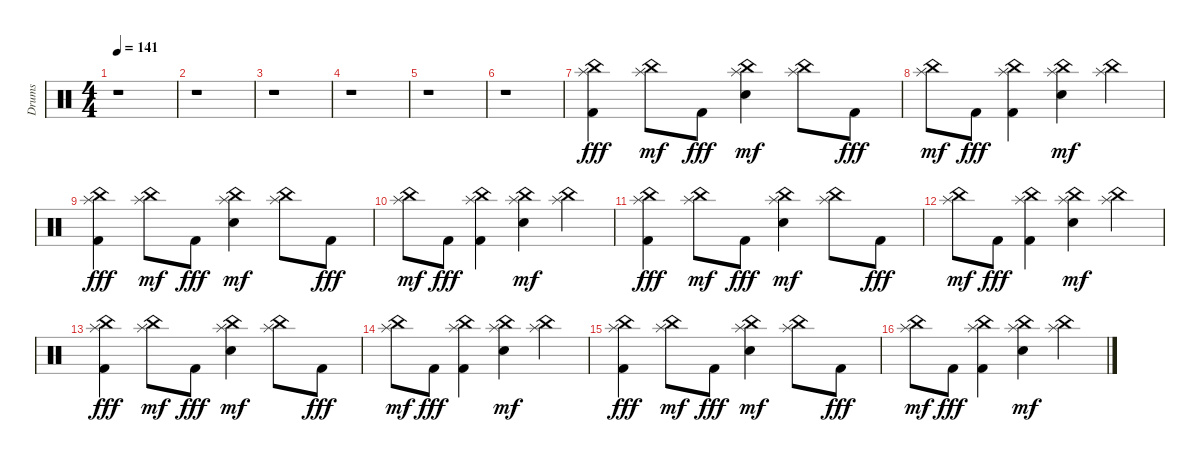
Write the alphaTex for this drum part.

\track ("Drums" "Drums") {instrument percussion}
\staff {score}
\articulation defaults
\ts (4 4)
\tempo 141
\clef neutral
\ks c
r.1{dy fff} |
r.1 |
r.1 |
r.1 |
r.1 |
r.1 |
("China (hit)" "Splash (hit)" "Kick (hit) 2").4 ("China (hit)" "Splash (hit)").8{dy mf} "Kick (hit) 2".8{dy fff} ("China (hit)" "Splash (hit)" "Electric Snare (hit)").4{dy mf} ("China (hit)" "Splash (hit)").8 "Kick (hit) 2".8{dy fff} |
("China (hit)" "Splash (hit)").8{dy mf} "Kick (hit) 2".8{dy fff} ("China (hit)" "Splash (hit)" "Kick (hit) 2").4 ("China (hit)" "Splash (hit)" "Electric Snare (hit)").4{dy mf} ("China (hit)" "Splash (hit)").4 |
("China (hit)" "Splash (hit)" "Kick (hit) 2").4{dy fff} ("China (hit)" "Splash (hit)").8{dy mf} "Kick (hit) 2".8{dy fff} ("China (hit)" "Splash (hit)" "Electric Snare (hit)").4{dy mf} ("China (hit)" "Splash (hit)").8 "Kick (hit) 2".8{dy fff} |
("China (hit)" "Splash (hit)").8{dy mf} "Kick (hit) 2".8{dy fff} ("China (hit)" "Splash (hit)" "Kick (hit) 2").4 ("China (hit)" "Splash (hit)" "Electric Snare (hit)").4{dy mf} ("China (hit)" "Splash (hit)").4 |
("China (hit)" "Splash (hit)" "Kick (hit) 2").4{dy fff} ("China (hit)" "Splash (hit)").8{dy mf} "Kick (hit) 2".8{dy fff} ("China (hit)" "Splash (hit)" "Electric Snare (hit)").4{dy mf} ("China (hit)" "Splash (hit)").8 "Kick (hit) 2".8{dy fff} |
("China (hit)" "Splash (hit)").8{dy mf} "Kick (hit) 2".8{dy fff} ("China (hit)" "Splash (hit)" "Kick (hit) 2").4 ("China (hit)" "Splash (hit)" "Electric Snare (hit)").4{dy mf} ("China (hit)" "Splash (hit)").4 |
("China (hit)" "Splash (hit)" "Kick (hit) 2").4{dy fff} ("China (hit)" "Splash (hit)").8{dy mf} "Kick (hit) 2".8{dy fff} ("China (hit)" "Splash (hit)" "Electric Snare (hit)").4{dy mf} ("China (hit)" "Splash (hit)").8 "Kick (hit) 2".8{dy fff} |
("China (hit)" "Splash (hit)").8{dy mf} "Kick (hit) 2".8{dy fff} ("China (hit)" "Splash (hit)" "Kick (hit) 2").4 ("China (hit)" "Splash (hit)" "Electric Snare (hit)").4{dy mf} ("China (hit)" "Splash (hit)").4 |
("China (hit)" "Splash (hit)" "Kick (hit) 2").4{dy fff} ("China (hit)" "Splash (hit)").8{dy mf} "Kick (hit) 2".8{dy fff} ("China (hit)" "Splash (hit)" "Electric Snare (hit)").4{dy mf} ("China (hit)" "Splash (hit)").8 "Kick (hit) 2".8{dy fff} |
("China (hit)" "Splash (hit)").8{dy mf} "Kick (hit) 2".8{dy fff} ("China (hit)" "Splash (hit)" "Kick (hit) 2").4 ("China (hit)" "Splash (hit)" "Electric Snare (hit)").4{dy mf} ("China (hit)" "Splash (hit)").4
